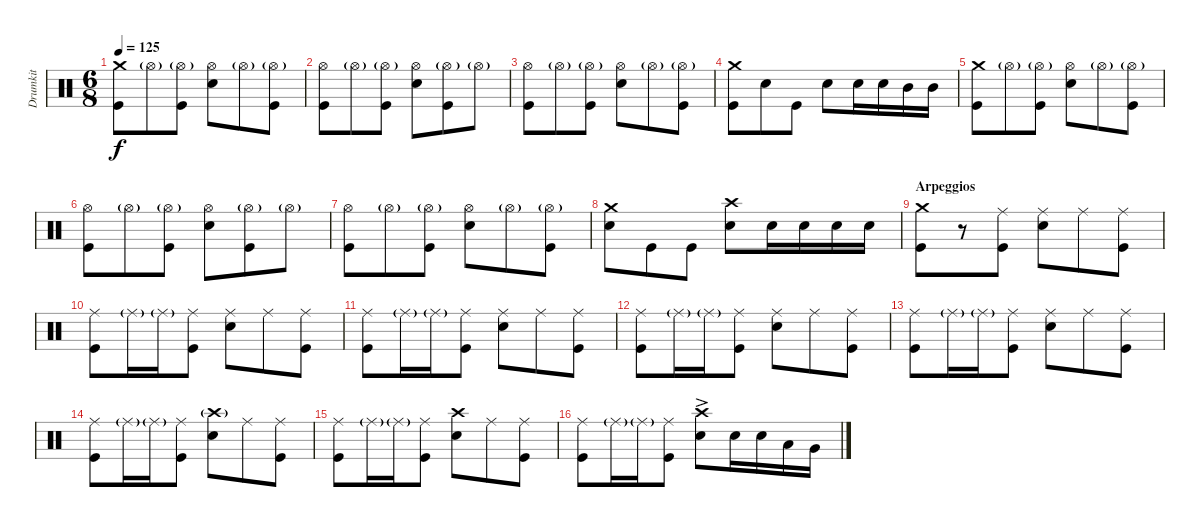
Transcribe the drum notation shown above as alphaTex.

\track ("Drumkit" "Drumkit") {instrument percussion}
\staff {score}
\articulation defaults
\ts (6 8)
\tempo 125
\clef neutral
\ks c
("Kick (hit)" "Crash medium (hit)").8{dy f} "Hi-Hat (open)"{g}.8 ("Kick (hit)" "Hi-Hat (open)"{g}).8 ("Snare (hit) 2" "Hi-Hat (open)").8 "Hi-Hat (open)"{g}.8 ("Hi-Hat (open)"{g} "Kick (hit)").8 |
("Kick (hit)" "Hi-Hat (open)").8 "Hi-Hat (open)"{g}.8 ("Kick (hit)" "Hi-Hat (open)"{g}).8 ("Snare (hit) 2" "Hi-Hat (open)").8 ("Hi-Hat (open)"{g} "Kick (hit)").8 "Hi-Hat (open)"{g}.8 |
("Kick (hit)" "Hi-Hat (open)").8 "Hi-Hat (open)"{g}.8 ("Kick (hit)" "Hi-Hat (open)"{g}).8 ("Snare (hit) 2" "Hi-Hat (open)").8 "Hi-Hat (open)"{g}.8 ("Hi-Hat (open)"{g} "Kick (hit)").8 |
("Crash medium (hit)" "Kick (hit)").8 "Snare (hit) 2".8 "Kick (hit)".8 "Snare (hit) 2".8 "Snare (hit) 2".16 "Snare (hit) 2".16 "Mid Tom (hit)".16 "Mid Tom (hit)".16 |
("Kick (hit)" "Crash medium (hit)").8 "Hi-Hat (open)"{g}.8 ("Kick (hit)" "Hi-Hat (open)"{g}).8 ("Snare (hit) 2" "Hi-Hat (open)").8 "Hi-Hat (open)"{g}.8 ("Hi-Hat (open)"{g} "Kick (hit)").8 |
("Kick (hit)" "Hi-Hat (open)").8 "Hi-Hat (open)"{g}.8 ("Kick (hit)" "Hi-Hat (open)"{g}).8 ("Snare (hit) 2" "Hi-Hat (open)").8 ("Hi-Hat (open)"{g} "Kick (hit)").8 "Hi-Hat (open)"{g}.8 |
("Kick (hit)" "Hi-Hat (open)").8 "Hi-Hat (open)"{g}.8 ("Kick (hit)" "Hi-Hat (open)"{g}).8 ("Snare (hit) 2" "Hi-Hat (open)").8 "Hi-Hat (open)"{g}.8 ("Hi-Hat (open)"{g} "Kick (hit)").8 |
("Crash medium (hit)" "Snare (hit) 2").8 "Kick (hit)".8 "Kick (hit)".8 ("Crash high (hit)" "Snare (hit) 2").8 "Snare (hit) 2".16 "Snare (hit) 2".16 "Snare (hit) 2".16 "Snare (hit) 2".16 |
\section ("" "Arpeggios")
("Kick (hit)" "Crash medium (hit)").8 r.8 ("Kick (hit)" "Ride (middle)").8 ("Snare (hit) 2" "Ride (middle)").8 "Ride (middle)".8 ("Kick (hit)" "Ride (middle)").8 |
("Kick (hit)" "Ride (middle)").8 "Ride (middle)"{g}.16 "Ride (middle)"{g}.16 ("Kick (hit)" "Ride (middle)").8 ("Snare (hit) 2" "Ride (middle)").8 "Ride (middle)".8 ("Kick (hit)" "Ride (middle)").8 |
("Kick (hit)" "Ride (middle)").8 "Ride (middle)"{g}.16 "Ride (middle)"{g}.16 ("Kick (hit)" "Ride (middle)").8 ("Snare (hit) 2" "Ride (middle)").8 "Ride (middle)".8 ("Kick (hit)" "Ride (middle)").8 |
("Kick (hit)" "Ride (middle)").8 "Ride (middle)"{g}.16 "Ride (middle)"{g}.16 ("Kick (hit)" "Ride (middle)").8 ("Snare (hit) 2" "Ride (middle)").8 "Ride (middle)".8 ("Kick (hit)" "Ride (middle)").8 |
("Kick (hit)" "Ride (middle)").8 "Ride (middle)"{g}.16 "Ride (middle)"{g}.16 ("Kick (hit)" "Ride (middle)").8 ("Snare (hit) 2" "Ride (middle)").8 "Ride (middle)".8 ("Kick (hit)" "Ride (middle)").8 |
("Kick (hit)" "Ride (middle)").8 "Ride (middle)"{g}.16 "Ride (middle)"{g}.16 ("Kick (hit)" "Ride (middle)").8 ("Snare (hit) 2" "Crash high (hit)"{g}).8 "Ride (middle)".8 ("Kick (hit)" "Ride (middle)").8 |
("Kick (hit)" "Ride (middle)").8 "Ride (middle)"{g}.16 "Ride (middle)"{g}.16 ("Kick (hit)" "Ride (middle)").8 ("Snare (hit) 2" "Crash high (hit)").8 "Ride (middle)".8 ("Kick (hit)" "Ride (middle)").8 |
("Kick (hit)" "Ride (middle)").8 "Ride (middle)"{g}.16 "Ride (middle)"{g}.16 ("Kick (hit)" "Ride (middle)").8 ("Snare (hit) 2" "Crash high (hit)"{ac}).8 "Snare (hit) 2".16 "Snare (hit) 2".16 "Low Tom (hit)".16 "Very Low Tom (hit)".16
